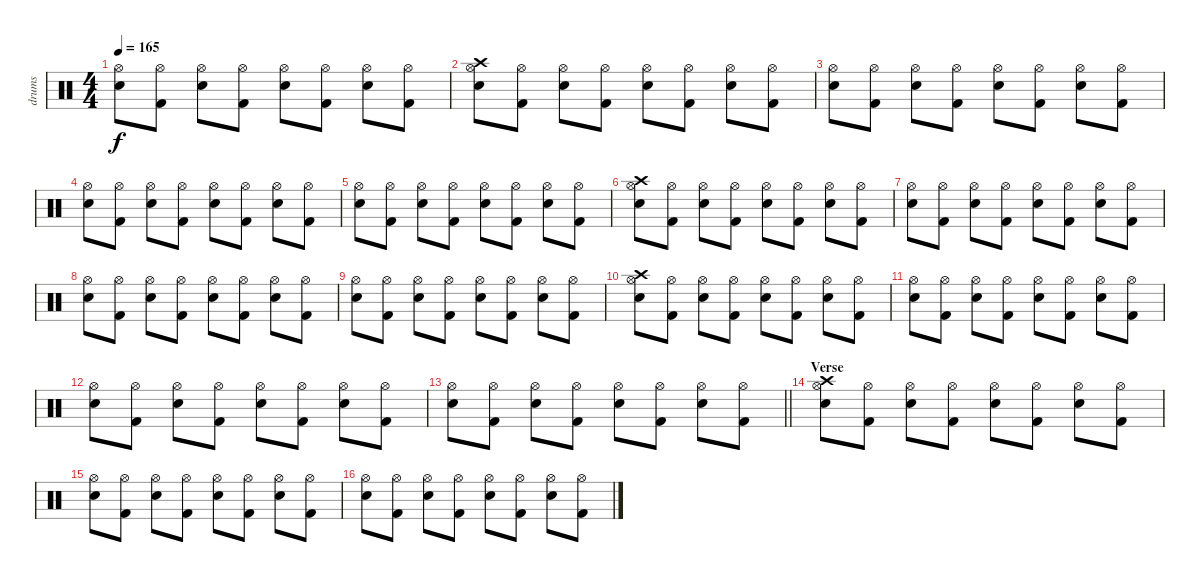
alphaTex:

\track ("drums" "drums") {instrument percussion}
\staff {score}
\articulation defaults
\ts (4 4)
\tempo 165
\clef neutral
\ks c
("Hi-Hat (open)" "Electric Snare (hit)").8{dy f} ("Hi-Hat (open)" "Kick (hit) 2").8 ("Hi-Hat (open)" "Electric Snare (hit)").8 ("Hi-Hat (open)" "Kick (hit) 2").8 ("Hi-Hat (open)" "Electric Snare (hit)").8 ("Hi-Hat (open)" "Kick (hit) 2").8 ("Hi-Hat (open)" "Electric Snare (hit)").8 ("Hi-Hat (open)" "Kick (hit) 2").8 |
("Crash high (hit)" "Hi-Hat (open)" "Electric Snare (hit)").8 ("Hi-Hat (open)" "Kick (hit) 2").8 ("Hi-Hat (open)" "Electric Snare (hit)").8 ("Hi-Hat (open)" "Kick (hit) 2").8 ("Hi-Hat (open)" "Electric Snare (hit)").8 ("Hi-Hat (open)" "Kick (hit) 2").8 ("Hi-Hat (open)" "Electric Snare (hit)").8 ("Hi-Hat (open)" "Kick (hit) 2").8 |
("Hi-Hat (open)" "Electric Snare (hit)").8 ("Hi-Hat (open)" "Kick (hit) 2").8 ("Hi-Hat (open)" "Electric Snare (hit)").8 ("Hi-Hat (open)" "Kick (hit) 2").8 ("Hi-Hat (open)" "Electric Snare (hit)").8 ("Hi-Hat (open)" "Kick (hit) 2").8 ("Hi-Hat (open)" "Electric Snare (hit)").8 ("Hi-Hat (open)" "Kick (hit) 2").8 |
("Hi-Hat (open)" "Electric Snare (hit)").8 ("Hi-Hat (open)" "Kick (hit) 2").8 ("Hi-Hat (open)" "Electric Snare (hit)").8 ("Hi-Hat (open)" "Kick (hit) 2").8 ("Hi-Hat (open)" "Electric Snare (hit)").8 ("Hi-Hat (open)" "Kick (hit) 2").8 ("Hi-Hat (open)" "Electric Snare (hit)").8 ("Hi-Hat (open)" "Kick (hit) 2").8 |
("Hi-Hat (open)" "Electric Snare (hit)").8 ("Hi-Hat (open)" "Kick (hit) 2").8 ("Hi-Hat (open)" "Electric Snare (hit)").8 ("Hi-Hat (open)" "Kick (hit) 2").8 ("Hi-Hat (open)" "Electric Snare (hit)").8 ("Hi-Hat (open)" "Kick (hit) 2").8 ("Hi-Hat (open)" "Electric Snare (hit)").8 ("Hi-Hat (open)" "Kick (hit) 2").8 |
("Crash high (hit)" "Hi-Hat (open)" "Electric Snare (hit)").8 ("Hi-Hat (open)" "Kick (hit) 2").8 ("Hi-Hat (open)" "Electric Snare (hit)").8 ("Hi-Hat (open)" "Kick (hit) 2").8 ("Hi-Hat (open)" "Electric Snare (hit)").8 ("Hi-Hat (open)" "Kick (hit) 2").8 ("Hi-Hat (open)" "Electric Snare (hit)").8 ("Hi-Hat (open)" "Kick (hit) 2").8 |
("Hi-Hat (open)" "Electric Snare (hit)").8 ("Hi-Hat (open)" "Kick (hit) 2").8 ("Hi-Hat (open)" "Electric Snare (hit)").8 ("Hi-Hat (open)" "Kick (hit) 2").8 ("Hi-Hat (open)" "Electric Snare (hit)").8 ("Hi-Hat (open)" "Kick (hit) 2").8 ("Hi-Hat (open)" "Electric Snare (hit)").8 ("Hi-Hat (open)" "Kick (hit) 2").8 |
("Hi-Hat (open)" "Electric Snare (hit)").8 ("Hi-Hat (open)" "Kick (hit) 2").8 ("Hi-Hat (open)" "Electric Snare (hit)").8 ("Hi-Hat (open)" "Kick (hit) 2").8 ("Hi-Hat (open)" "Electric Snare (hit)").8 ("Hi-Hat (open)" "Kick (hit) 2").8 ("Hi-Hat (open)" "Electric Snare (hit)").8 ("Hi-Hat (open)" "Kick (hit) 2").8 |
("Hi-Hat (open)" "Electric Snare (hit)").8 ("Hi-Hat (open)" "Kick (hit) 2").8 ("Hi-Hat (open)" "Electric Snare (hit)").8 ("Hi-Hat (open)" "Kick (hit) 2").8 ("Hi-Hat (open)" "Electric Snare (hit)").8 ("Hi-Hat (open)" "Kick (hit) 2").8 ("Hi-Hat (open)" "Electric Snare (hit)").8 ("Hi-Hat (open)" "Kick (hit) 2").8 |
("Crash high (hit)" "Hi-Hat (open)" "Electric Snare (hit)").8 ("Hi-Hat (open)" "Kick (hit) 2").8 ("Hi-Hat (open)" "Electric Snare (hit)").8 ("Hi-Hat (open)" "Kick (hit) 2").8 ("Hi-Hat (open)" "Electric Snare (hit)").8 ("Hi-Hat (open)" "Kick (hit) 2").8 ("Hi-Hat (open)" "Electric Snare (hit)").8 ("Hi-Hat (open)" "Kick (hit) 2").8 |
("Hi-Hat (open)" "Electric Snare (hit)").8 ("Hi-Hat (open)" "Kick (hit) 2").8 ("Hi-Hat (open)" "Electric Snare (hit)").8 ("Hi-Hat (open)" "Kick (hit) 2").8 ("Hi-Hat (open)" "Electric Snare (hit)").8 ("Hi-Hat (open)" "Kick (hit) 2").8 ("Hi-Hat (open)" "Electric Snare (hit)").8 ("Hi-Hat (open)" "Kick (hit) 2").8 |
("Hi-Hat (open)" "Electric Snare (hit)").8 ("Hi-Hat (open)" "Kick (hit) 2").8 ("Hi-Hat (open)" "Electric Snare (hit)").8 ("Hi-Hat (open)" "Kick (hit) 2").8 ("Hi-Hat (open)" "Electric Snare (hit)").8 ("Hi-Hat (open)" "Kick (hit) 2").8 ("Hi-Hat (open)" "Electric Snare (hit)").8 ("Hi-Hat (open)" "Kick (hit) 2").8 |
\barLineRight lightlight
("Hi-Hat (open)" "Electric Snare (hit)").8 ("Hi-Hat (open)" "Kick (hit) 2").8 ("Hi-Hat (open)" "Electric Snare (hit)").8 ("Hi-Hat (open)" "Kick (hit) 2").8 ("Hi-Hat (open)" "Electric Snare (hit)").8 ("Hi-Hat (open)" "Kick (hit) 2").8 ("Hi-Hat (open)" "Electric Snare (hit)").8 ("Hi-Hat (open)" "Kick (hit) 2").8 |
\section ("" "Verse")
("Crash high (hit)" "Hi-Hat (open)" "Electric Snare (hit)").8 ("Hi-Hat (open)" "Kick (hit) 2").8 ("Hi-Hat (open)" "Electric Snare (hit)").8 ("Hi-Hat (open)" "Kick (hit) 2").8 ("Hi-Hat (open)" "Electric Snare (hit)").8 ("Hi-Hat (open)" "Kick (hit) 2").8 ("Hi-Hat (open)" "Electric Snare (hit)").8 ("Hi-Hat (open)" "Kick (hit) 2").8 |
("Hi-Hat (open)" "Electric Snare (hit)").8 ("Hi-Hat (open)" "Kick (hit) 2").8 ("Hi-Hat (open)" "Electric Snare (hit)").8 ("Hi-Hat (open)" "Kick (hit) 2").8 ("Hi-Hat (open)" "Electric Snare (hit)").8 ("Hi-Hat (open)" "Kick (hit) 2").8 ("Hi-Hat (open)" "Electric Snare (hit)").8 ("Hi-Hat (open)" "Kick (hit) 2").8 |
("Hi-Hat (open)" "Electric Snare (hit)").8 ("Hi-Hat (open)" "Kick (hit) 2").8 ("Hi-Hat (open)" "Electric Snare (hit)").8 ("Hi-Hat (open)" "Kick (hit) 2").8 ("Hi-Hat (open)" "Electric Snare (hit)").8 ("Hi-Hat (open)" "Kick (hit) 2").8 ("Hi-Hat (open)" "Electric Snare (hit)").8 ("Hi-Hat (open)" "Kick (hit) 2").8
